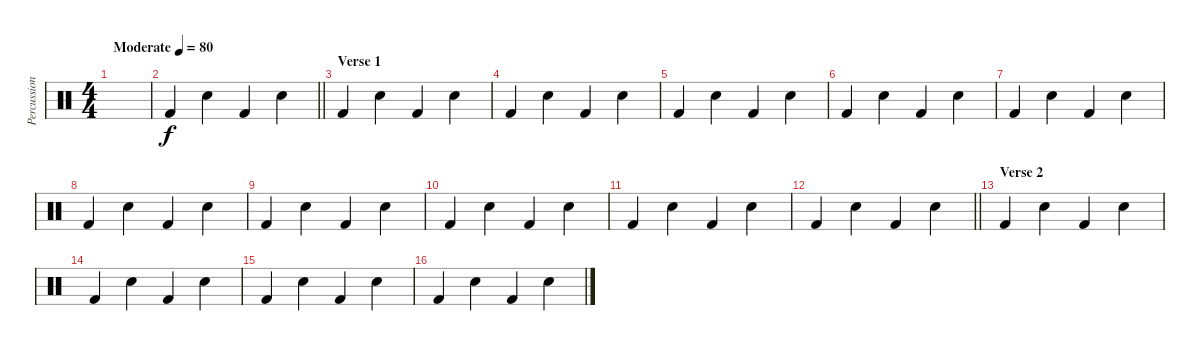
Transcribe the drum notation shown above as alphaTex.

\track ("Percussion" "Percussion") {instrument percussion}
\staff {score}
\articulation defaults
\ts (4 4)
\tempo (80 "Moderate")
\clef neutral
\ks c
|
\barLineRight lightlight "Kick (hit) 2".4 "Snare (hit) 2".4 "Kick (hit) 2".4 "Snare (hit) 2".4
|
\section ("" "Verse 1")
"Kick (hit) 2".4 "Snare (hit) 2".4 "Kick (hit) 2".4 "Snare (hit) 2".4 |
"Kick (hit) 2".4 "Snare (hit) 2".4 "Kick (hit) 2".4 "Snare (hit) 2".4 |
"Kick (hit) 2".4 "Snare (hit) 2".4 "Kick (hit) 2".4 "Snare (hit) 2".4 |
"Kick (hit) 2".4 "Snare (hit) 2".4 "Kick (hit) 2".4 "Snare (hit) 2".4 |
"Kick (hit) 2".4 "Snare (hit) 2".4 "Kick (hit) 2".4 "Snare (hit) 2".4 |
"Kick (hit) 2".4 "Snare (hit) 2".4 "Kick (hit) 2".4 "Snare (hit) 2".4 |
"Kick (hit) 2".4 "Snare (hit) 2".4 "Kick (hit) 2".4 "Snare (hit) 2".4 |
"Kick (hit) 2".4 "Snare (hit) 2".4 "Kick (hit) 2".4 "Snare (hit) 2".4 |
"Kick (hit) 2".4 "Snare (hit) 2".4 "Kick (hit) 2".4 "Snare (hit) 2".4 |
\barLineRight lightlight "Kick (hit) 2".4 "Snare (hit) 2".4 "Kick (hit) 2".4 "Snare (hit) 2".4
|
\section ("" "Verse 2")
"Kick (hit) 2".4 "Snare (hit) 2".4 "Kick (hit) 2".4 "Snare (hit) 2".4 |
"Kick (hit) 2".4 "Snare (hit) 2".4 "Kick (hit) 2".4 "Snare (hit) 2".4 |
"Kick (hit) 2".4 "Snare (hit) 2".4 "Kick (hit) 2".4 "Snare (hit) 2".4 |
"Kick (hit) 2".4 "Snare (hit) 2".4 "Kick (hit) 2".4 "Snare (hit) 2".4
